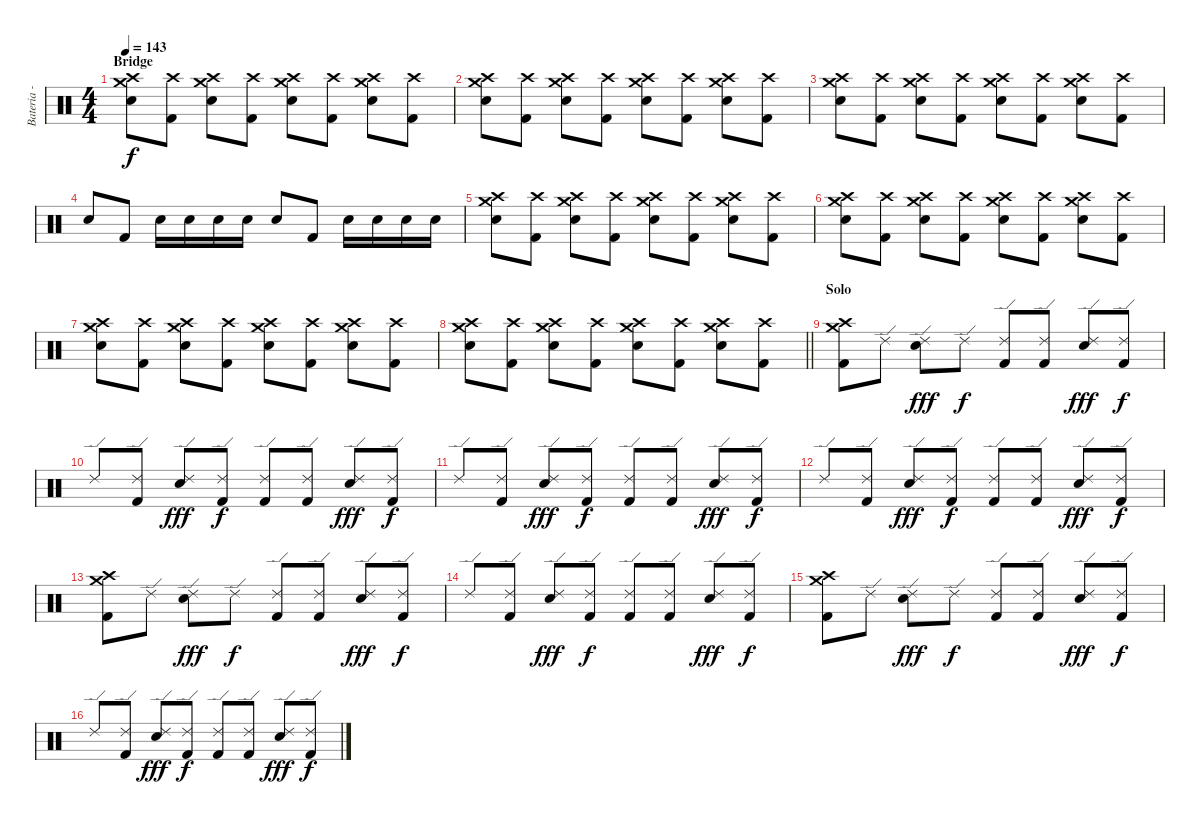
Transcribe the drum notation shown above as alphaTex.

\track ("Bateria - Larzon" "Bateria - ") {instrument percussion}
\staff {score}
\articulation defaults
\ts (4 4)
\section ("" "Bridge")
\tempo 143
\clef neutral
\ks c
("Electric Snare (hit)" "Crash high (hit)" "Crash medium (hit)").8{dy f} ("Kick (hit) 2" "Crash high (hit)").8 ("Electric Snare (hit)" "Crash high (hit)" "Crash medium (hit)").8 ("Kick (hit) 2" "Crash high (hit)").8 ("Electric Snare (hit)" "Crash high (hit)" "Crash medium (hit)").8 ("Kick (hit) 2" "Crash high (hit)").8 ("Electric Snare (hit)" "Crash high (hit)" "Crash medium (hit)").8 ("Kick (hit) 2" "Crash high (hit)").8 |
("Electric Snare (hit)" "Crash high (hit)" "Crash medium (hit)").8 ("Kick (hit) 2" "Crash high (hit)").8 ("Electric Snare (hit)" "Crash high (hit)" "Crash medium (hit)").8 ("Kick (hit) 2" "Crash high (hit)").8 ("Electric Snare (hit)" "Crash high (hit)" "Crash medium (hit)").8 ("Kick (hit) 2" "Crash high (hit)").8 ("Electric Snare (hit)" "Crash high (hit)" "Crash medium (hit)").8 ("Kick (hit) 2" "Crash high (hit)").8 |
("Electric Snare (hit)" "Crash high (hit)" "Crash medium (hit)").8 ("Kick (hit) 2" "Crash high (hit)").8 ("Electric Snare (hit)" "Crash high (hit)" "Crash medium (hit)").8 ("Kick (hit) 2" "Crash high (hit)").8 ("Electric Snare (hit)" "Crash high (hit)" "Crash medium (hit)").8 ("Kick (hit) 2" "Crash high (hit)").8 ("Electric Snare (hit)" "Crash high (hit)" "Crash medium (hit)").8 ("Kick (hit) 2" "Crash high (hit)").8 |
"Electric Snare (hit)".8 "Kick (hit) 2".8 "Electric Snare (hit)".16 "Electric Snare (hit)".16 "Electric Snare (hit)".16 "Electric Snare (hit)".16 "Electric Snare (hit)".8 "Kick (hit) 2".8 "Electric Snare (hit)".16 "Electric Snare (hit)".16 "Electric Snare (hit)".16 "Electric Snare (hit)".16 |
("Electric Snare (hit)" "Crash high (hit)" "Crash medium (hit)").8 ("Kick (hit) 2" "Crash high (hit)").8 ("Electric Snare (hit)" "Crash high (hit)" "Crash medium (hit)").8 ("Kick (hit) 2" "Crash high (hit)").8 ("Electric Snare (hit)" "Crash high (hit)" "Crash medium (hit)").8 ("Kick (hit) 2" "Crash high (hit)").8 ("Electric Snare (hit)" "Crash high (hit)" "Crash medium (hit)").8 ("Kick (hit) 2" "Crash high (hit)").8 |
("Electric Snare (hit)" "Crash high (hit)" "Crash medium (hit)").8 ("Kick (hit) 2" "Crash high (hit)").8 ("Electric Snare (hit)" "Crash high (hit)" "Crash medium (hit)").8 ("Kick (hit) 2" "Crash high (hit)").8 ("Electric Snare (hit)" "Crash high (hit)" "Crash medium (hit)").8 ("Kick (hit) 2" "Crash high (hit)").8 ("Electric Snare (hit)" "Crash high (hit)" "Crash medium (hit)").8 ("Kick (hit) 2" "Crash high (hit)").8 |
("Electric Snare (hit)" "Crash high (hit)" "Crash medium (hit)").8 ("Kick (hit) 2" "Crash high (hit)").8 ("Electric Snare (hit)" "Crash high (hit)" "Crash medium (hit)").8 ("Kick (hit) 2" "Crash high (hit)").8 ("Electric Snare (hit)" "Crash high (hit)" "Crash medium (hit)").8 ("Kick (hit) 2" "Crash high (hit)").8 ("Electric Snare (hit)" "Crash high (hit)" "Crash medium (hit)").8 ("Kick (hit) 2" "Crash high (hit)").8 |
\barLineRight lightlight
("Electric Snare (hit)" "Crash high (hit)" "Crash medium (hit)").8 ("Kick (hit) 2" "Crash high (hit)").8 ("Electric Snare (hit)" "Crash high (hit)" "Crash medium (hit)").8 ("Kick (hit) 2" "Crash high (hit)").8 ("Electric Snare (hit)" "Crash high (hit)" "Crash medium (hit)").8 ("Kick (hit) 2" "Crash high (hit)").8 ("Electric Snare (hit)" "Crash high (hit)" "Crash medium (hit)").8 ("Kick (hit) 2" "Crash high (hit)").8 |
\section ("" "Solo")
("Kick (hit) 2" "Crash medium (hit)" "Crash high (hit)").8 "Ride (edge) 2".8 ("Electric Snare (hit)" "Ride (edge) 2").8{dy fff} "Ride (edge) 2".8{dy f} ("Kick (hit) 2" "Ride (edge) 2").8 ("Kick (hit) 2" "Ride (edge) 2").8 ("Electric Snare (hit)" "Ride (edge) 2").8{dy fff} ("Kick (hit) 2" "Ride (edge) 2").8{dy f} |
"Ride (edge) 2".8 ("Kick (hit) 2" "Ride (edge) 2").8 ("Electric Snare (hit)" "Ride (edge) 2").8{dy fff} ("Kick (hit) 2" "Ride (edge) 2").8{dy f} ("Kick (hit) 2" "Ride (edge) 2").8 ("Kick (hit) 2" "Ride (edge) 2").8 ("Electric Snare (hit)" "Ride (edge) 2").8{dy fff} ("Kick (hit) 2" "Ride (edge) 2").8{dy f} |
"Ride (edge) 2".8 ("Kick (hit) 2" "Ride (edge) 2").8 ("Electric Snare (hit)" "Ride (edge) 2").8{dy fff} ("Kick (hit) 2" "Ride (edge) 2").8{dy f} ("Kick (hit) 2" "Ride (edge) 2").8 ("Kick (hit) 2" "Ride (edge) 2").8 ("Electric Snare (hit)" "Ride (edge) 2").8{dy fff} ("Kick (hit) 2" "Ride (edge) 2").8{dy f} |
"Ride (edge) 2".8 ("Kick (hit) 2" "Ride (edge) 2").8 ("Electric Snare (hit)" "Ride (edge) 2").8{dy fff} ("Kick (hit) 2" "Ride (edge) 2").8{dy f} ("Kick (hit) 2" "Ride (edge) 2").8 ("Kick (hit) 2" "Ride (edge) 2").8 ("Electric Snare (hit)" "Ride (edge) 2").8{dy fff} ("Kick (hit) 2" "Ride (edge) 2").8{dy f} |
("Kick (hit) 2" "Crash medium (hit)" "Crash high (hit)").8 "Ride (edge) 2".8 ("Electric Snare (hit)" "Ride (edge) 2").8{dy fff} "Ride (edge) 2".8{dy f} ("Kick (hit) 2" "Ride (edge) 2").8 ("Kick (hit) 2" "Ride (edge) 2").8 ("Electric Snare (hit)" "Ride (edge) 2").8{dy fff} ("Kick (hit) 2" "Ride (edge) 2").8{dy f} |
"Ride (edge) 2".8 ("Kick (hit) 2" "Ride (edge) 2").8 ("Electric Snare (hit)" "Ride (edge) 2").8{dy fff} ("Kick (hit) 2" "Ride (edge) 2").8{dy f} ("Kick (hit) 2" "Ride (edge) 2").8 ("Kick (hit) 2" "Ride (edge) 2").8 ("Electric Snare (hit)" "Ride (edge) 2").8{dy fff} ("Kick (hit) 2" "Ride (edge) 2").8{dy f} |
("Kick (hit) 2" "Crash medium (hit)" "Crash high (hit)").8 "Ride (edge) 2".8 ("Electric Snare (hit)" "Ride (edge) 2").8{dy fff} "Ride (edge) 2".8{dy f} ("Kick (hit) 2" "Ride (edge) 2").8 ("Kick (hit) 2" "Ride (edge) 2").8 ("Electric Snare (hit)" "Ride (edge) 2").8{dy fff} ("Kick (hit) 2" "Ride (edge) 2").8{dy f} |
"Ride (edge) 2".8 ("Kick (hit) 2" "Ride (edge) 2").8 ("Electric Snare (hit)" "Ride (edge) 2").8{dy fff} ("Kick (hit) 2" "Ride (edge) 2").8{dy f} ("Kick (hit) 2" "Ride (edge) 2").8 ("Kick (hit) 2" "Ride (edge) 2").8 ("Electric Snare (hit)" "Ride (edge) 2").8{dy fff} ("Kick (hit) 2" "Ride (edge) 2").8{dy f}
